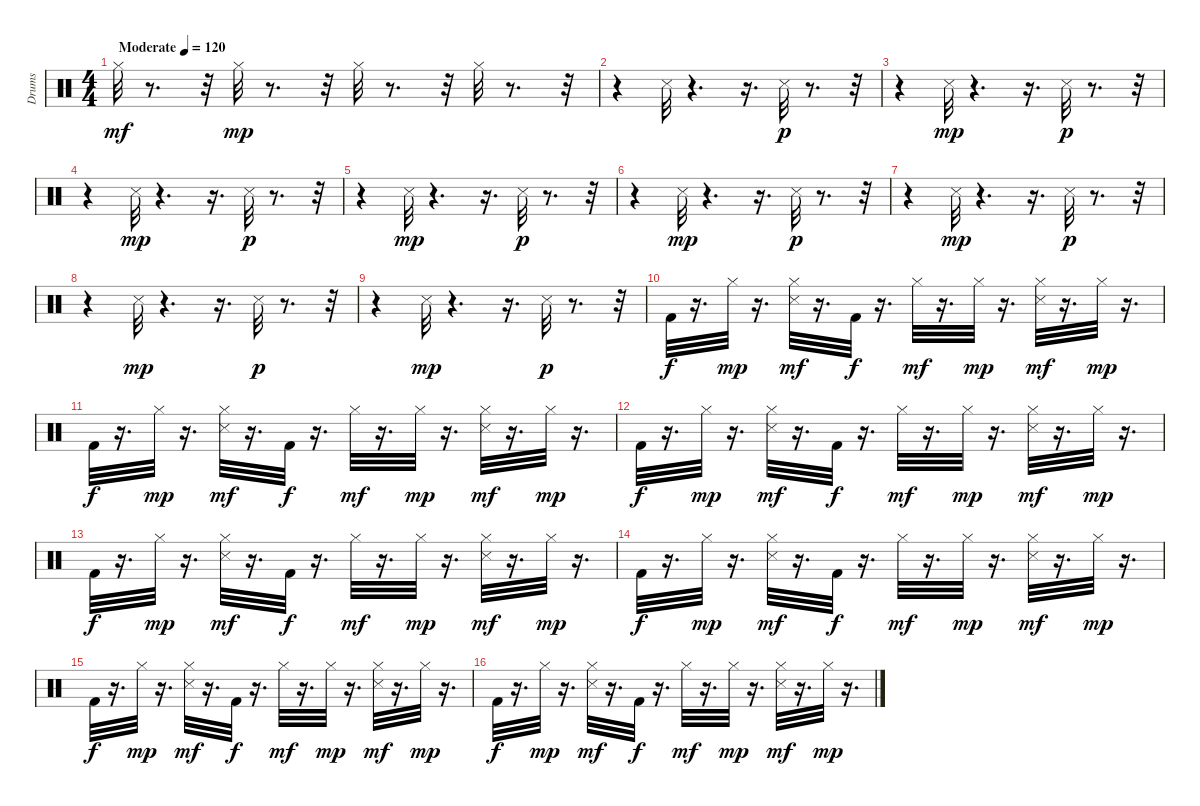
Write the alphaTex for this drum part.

\track ("Drums" "Drums") {instrument percussion}
\staff {score}
\articulation defaults
\ts (4 4)
\tempo (120 "Moderate")
\clef neutral
\ks c "Hi-Hat (closed)".32{dy mf}
r.8{d} r.32 "Hi-Hat (closed)".32{dy mp} r.8{d} r.32 "Hi-Hat (closed)".32 r.8{d} r.32 "Hi-Hat (closed)".32 r.8{d} r.32 |
r.4 "Metronome (hit)".32 r.4{d} r.16{d} "Metronome (hit)".32{dy p} r.8{d} r.32 |
r.4 "Metronome (hit)".32{dy mp} r.4{d} r.16{d} "Metronome (hit)".32{dy p} r.8{d} r.32 |
r.4 "Metronome (hit)".32{dy mp} r.4{d} r.16{d} "Metronome (hit)".32{dy p} r.8{d} r.32 |
r.4 "Metronome (hit)".32{dy mp} r.4{d} r.16{d} "Metronome (hit)".32{dy p} r.8{d} r.32 |
r.4 "Metronome (hit)".32{dy mp} r.4{d} r.16{d} "Metronome (hit)".32{dy p} r.8{d} r.32 |
r.4 "Metronome (hit)".32{dy mp} r.4{d} r.16{d} "Metronome (hit)".32{dy p} r.8{d} r.32 |
r.4 "Metronome (hit)".32{dy mp} r.4{d} r.16{d} "Metronome (hit)".32{dy p} r.8{d} r.32 |
r.4 "Metronome (hit)".32{dy mp} r.4{d} r.16{d} "Metronome (hit)".32{dy p} r.8{d} r.32 |
"Kick (hit) 2".32{dy f} r.16{d} "Hi-Hat (closed)".32{dy mp} r.16{d} ("Metronome (hit)" "Hi-Hat (closed)").32{dy mf} r.16{d} "Kick (hit) 2".32{dy f} r.16{d} "Hi-Hat (closed)".32{dy mf} r.16{d} "Hi-Hat (closed)".32{dy mp} r.16{d} ("Metronome (hit)" "Hi-Hat (closed)").32{dy mf} r.16{d} "Hi-Hat (closed)".32{dy mp} r.16{d} |
"Kick (hit) 2".32{dy f} r.16{d} "Hi-Hat (closed)".32{dy mp} r.16{d} ("Metronome (hit)" "Hi-Hat (closed)").32{dy mf} r.16{d} "Kick (hit) 2".32{dy f} r.16{d} "Hi-Hat (closed)".32{dy mf} r.16{d} "Hi-Hat (closed)".32{dy mp} r.16{d} ("Metronome (hit)" "Hi-Hat (closed)").32{dy mf} r.16{d} "Hi-Hat (closed)".32{dy mp} r.16{d} |
"Kick (hit) 2".32{dy f} r.16{d} "Hi-Hat (closed)".32{dy mp} r.16{d} ("Metronome (hit)" "Hi-Hat (closed)").32{dy mf} r.16{d} "Kick (hit) 2".32{dy f} r.16{d} "Hi-Hat (closed)".32{dy mf} r.16{d} "Hi-Hat (closed)".32{dy mp} r.16{d} ("Metronome (hit)" "Hi-Hat (closed)").32{dy mf} r.16{d} "Hi-Hat (closed)".32{dy mp} r.16{d} |
"Kick (hit) 2".32{dy f} r.16{d} "Hi-Hat (closed)".32{dy mp} r.16{d} ("Metronome (hit)" "Hi-Hat (closed)").32{dy mf} r.16{d} "Kick (hit) 2".32{dy f} r.16{d} "Hi-Hat (closed)".32{dy mf} r.16{d} "Hi-Hat (closed)".32{dy mp} r.16{d} ("Metronome (hit)" "Hi-Hat (closed)").32{dy mf} r.16{d} "Hi-Hat (closed)".32{dy mp} r.16{d} |
"Kick (hit) 2".32{dy f} r.16{d} "Hi-Hat (closed)".32{dy mp} r.16{d} ("Metronome (hit)" "Hi-Hat (closed)").32{dy mf} r.16{d} "Kick (hit) 2".32{dy f} r.16{d} "Hi-Hat (closed)".32{dy mf} r.16{d} "Hi-Hat (closed)".32{dy mp} r.16{d} ("Metronome (hit)" "Hi-Hat (closed)").32{dy mf} r.16{d} "Hi-Hat (closed)".32{dy mp} r.16{d} |
"Kick (hit) 2".32{dy f} r.16{d} "Hi-Hat (closed)".32{dy mp} r.16{d} ("Metronome (hit)" "Hi-Hat (closed)").32{dy mf} r.16{d} "Kick (hit) 2".32{dy f} r.16{d} "Hi-Hat (closed)".32{dy mf} r.16{d} "Hi-Hat (closed)".32{dy mp} r.16{d} ("Metronome (hit)" "Hi-Hat (closed)").32{dy mf} r.16{d} "Hi-Hat (closed)".32{dy mp} r.16{d} |
"Kick (hit) 2".32{dy f} r.16{d} "Hi-Hat (closed)".32{dy mp} r.16{d} ("Metronome (hit)" "Hi-Hat (closed)").32{dy mf} r.16{d} "Kick (hit) 2".32{dy f} r.16{d} "Hi-Hat (closed)".32{dy mf} r.16{d} "Hi-Hat (closed)".32{dy mp} r.16{d} ("Metronome (hit)" "Hi-Hat (closed)").32{dy mf} r.16{d} "Hi-Hat (closed)".32{dy mp} r.16{d}
